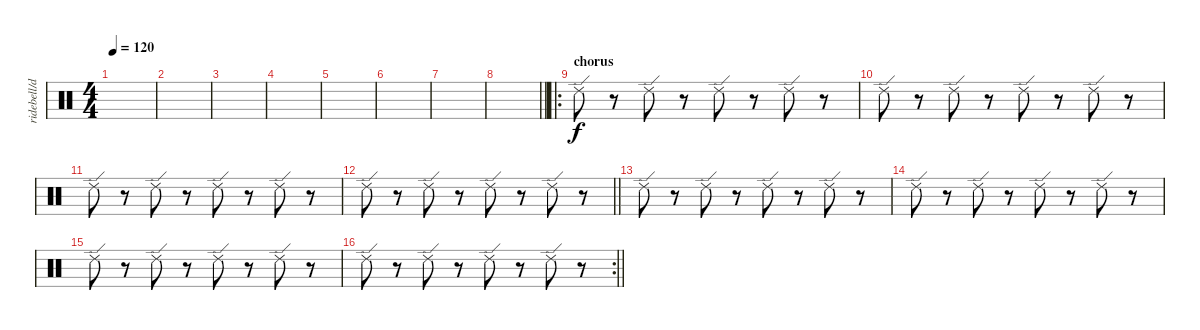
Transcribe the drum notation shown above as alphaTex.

\track ("ridebell/drum" "ridebell/d") {instrument percussion}
\staff {score}
\articulation defaults
\ts (4 4)
\tempo 120
\clef neutral
\ks c
|
|
|
|
|
|
|
\barLineRight lightlight
|
\ro
\section ("" "chorus")
"Ride (edge) 2".8 r.8 "Ride (edge) 2".8 r.8 "Ride (edge) 2".8 r.8 "Ride (edge) 2".8 r.8 |
"Ride (edge) 2".8 r.8 "Ride (edge) 2".8 r.8 "Ride (edge) 2".8 r.8 "Ride (edge) 2".8 r.8 |
"Ride (edge) 2".8 r.8 "Ride (edge) 2".8 r.8 "Ride (edge) 2".8 r.8 "Ride (edge) 2".8 r.8 |
\barLineRight lightlight "Ride (edge) 2".8
r.8 "Ride (edge) 2".8 r.8 "Ride (edge) 2".8 r.8 "Ride (edge) 2".8 r.8 |
"Ride (edge) 2".8 r.8 "Ride (edge) 2".8 r.8 "Ride (edge) 2".8 r.8 "Ride (edge) 2".8 r.8 |
"Ride (edge) 2".8 r.8 "Ride (edge) 2".8 r.8 "Ride (edge) 2".8 r.8 "Ride (edge) 2".8 r.8 |
"Ride (edge) 2".8 r.8 "Ride (edge) 2".8 r.8 "Ride (edge) 2".8 r.8 "Ride (edge) 2".8 r.8 |
\rc 2
\barLineRight lightlight "Ride (edge) 2".8
r.8 "Ride (edge) 2".8 r.8 "Ride (edge) 2".8 r.8 "Ride (edge) 2".8 r.8
